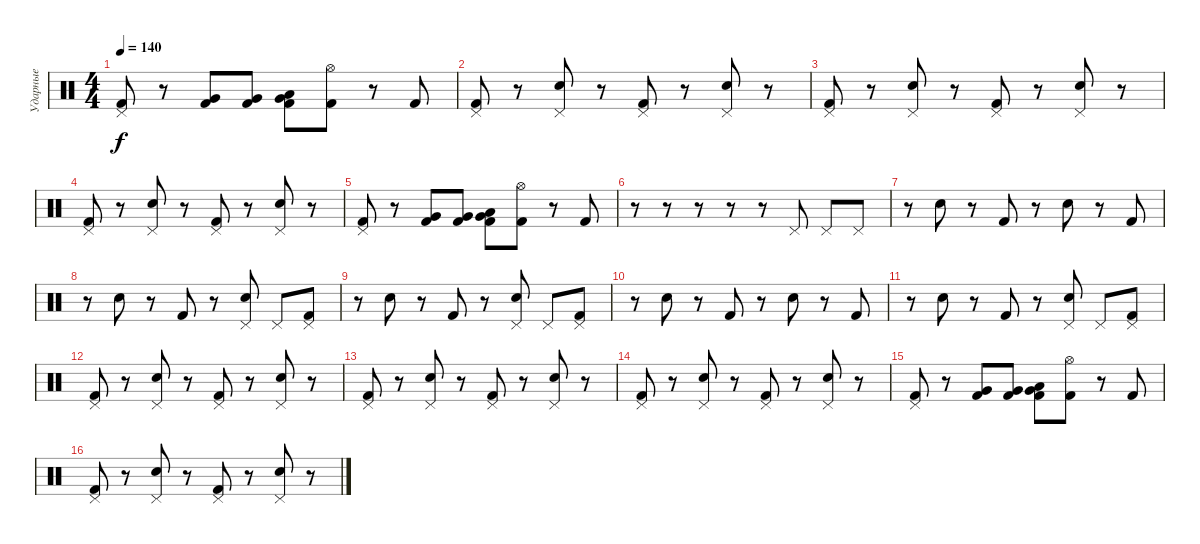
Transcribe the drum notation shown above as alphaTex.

\track ("Ударные" "Ударные") {instrument percussion}
\staff
\articulation defaults
\ts (4 4)
\tempo 140
\clef neutral
\ks c
("Pedal Hi-Hat (hit)" "Kick (hit) 2").8{dy f} r.8 ("Very Low Tom (hit)" "Kick (hit) 2").8 ("Very Low Tom (hit)" "Kick (hit) 2").8 ("Very Low Tom (hit)" "Low Tom (hit)" "Kick (hit) 2").8 ("Hi-Hat (open)" "Kick (hit) 2").8 r.8 "Kick (hit) 2".8 |
("Pedal Hi-Hat (hit)" "Kick (hit) 2").8 r.8 ("Pedal Hi-Hat (hit)" "Snare (hit) 2").8 r.8 ("Pedal Hi-Hat (hit)" "Kick (hit) 2").8 r.8 ("Pedal Hi-Hat (hit)" "Snare (hit) 2").8 r.8 |
("Pedal Hi-Hat (hit)" "Kick (hit) 2").8 r.8 ("Pedal Hi-Hat (hit)" "Snare (hit) 2").8 r.8 ("Pedal Hi-Hat (hit)" "Kick (hit) 2").8 r.8 ("Pedal Hi-Hat (hit)" "Snare (hit) 2").8 r.8 |
("Pedal Hi-Hat (hit)" "Kick (hit) 2").8 r.8 ("Pedal Hi-Hat (hit)" "Snare (hit) 2").8 r.8 ("Pedal Hi-Hat (hit)" "Kick (hit) 2").8 r.8 ("Pedal Hi-Hat (hit)" "Snare (hit) 2").8 r.8 |
("Pedal Hi-Hat (hit)" "Kick (hit) 2").8 r.8 ("Very Low Tom (hit)" "Kick (hit) 2").8 ("Very Low Tom (hit)" "Kick (hit) 2").8 ("Very Low Tom (hit)" "Low Tom (hit)" "Kick (hit) 2").8 ("Hi-Hat (open)" "Kick (hit) 2").8 r.8 "Kick (hit) 2".8 |
r.8 r.8 r.8 r.8 r.8 "Pedal Hi-Hat (hit)".8 "Pedal Hi-Hat (hit)".8 "Pedal Hi-Hat (hit)".8 |
r.8 "Snare (hit) 2".8 r.8 "Kick (hit) 2".8 r.8 "Snare (hit) 2".8 r.8 "Kick (hit) 2".8 |
r.8 "Snare (hit) 2".8 r.8 "Kick (hit) 2".8 r.8 ("Pedal Hi-Hat (hit)" "Snare (hit) 2").8 "Pedal Hi-Hat (hit)".8 ("Pedal Hi-Hat (hit)" "Kick (hit) 2").8 |
r.8 "Snare (hit) 2".8 r.8 "Kick (hit) 2".8 r.8 ("Pedal Hi-Hat (hit)" "Snare (hit) 2").8 "Pedal Hi-Hat (hit)".8 ("Pedal Hi-Hat (hit)" "Kick (hit) 2").8 |
r.8 "Snare (hit) 2".8 r.8 "Kick (hit) 2".8 r.8 "Snare (hit) 2".8 r.8 "Kick (hit) 2".8 |
r.8 "Snare (hit) 2".8 r.8 "Kick (hit) 2".8 r.8 ("Pedal Hi-Hat (hit)" "Snare (hit) 2").8 "Pedal Hi-Hat (hit)".8 ("Pedal Hi-Hat (hit)" "Kick (hit) 2").8 |
("Pedal Hi-Hat (hit)" "Kick (hit) 2").8 r.8 ("Pedal Hi-Hat (hit)" "Snare (hit) 2").8 r.8 ("Pedal Hi-Hat (hit)" "Kick (hit) 2").8 r.8 ("Pedal Hi-Hat (hit)" "Snare (hit) 2").8 r.8 |
("Pedal Hi-Hat (hit)" "Kick (hit) 2").8 r.8 ("Pedal Hi-Hat (hit)" "Snare (hit) 2").8 r.8 ("Pedal Hi-Hat (hit)" "Kick (hit) 2").8 r.8 ("Pedal Hi-Hat (hit)" "Snare (hit) 2").8 r.8 |
("Pedal Hi-Hat (hit)" "Kick (hit) 2").8 r.8 ("Pedal Hi-Hat (hit)" "Snare (hit) 2").8 r.8 ("Pedal Hi-Hat (hit)" "Kick (hit) 2").8 r.8 ("Pedal Hi-Hat (hit)" "Snare (hit) 2").8 r.8 |
("Pedal Hi-Hat (hit)" "Kick (hit) 2").8 r.8 ("Very Low Tom (hit)" "Kick (hit) 2").8 ("Very Low Tom (hit)" "Kick (hit) 2").8 ("Very Low Tom (hit)" "Low Tom (hit)" "Kick (hit) 2").8 ("Hi-Hat (open)" "Kick (hit) 2").8 r.8 "Kick (hit) 2".8 |
("Pedal Hi-Hat (hit)" "Kick (hit) 2").8 r.8 ("Pedal Hi-Hat (hit)" "Snare (hit) 2").8 r.8 ("Pedal Hi-Hat (hit)" "Kick (hit) 2").8 r.8 ("Pedal Hi-Hat (hit)" "Snare (hit) 2").8 r.8
